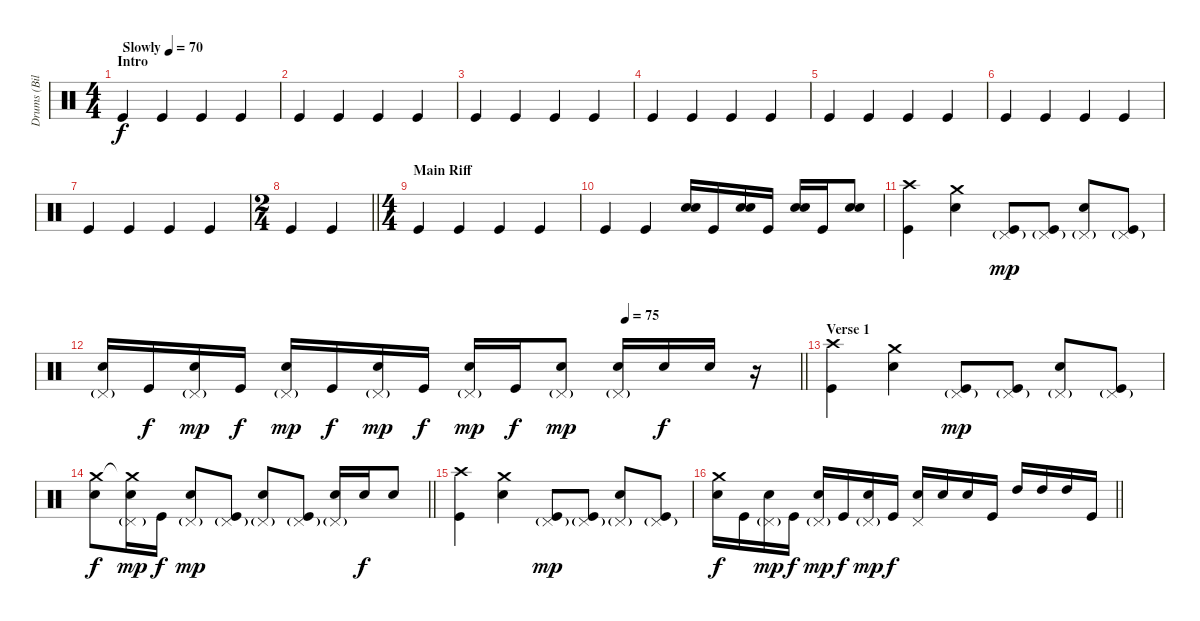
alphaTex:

\track ("Drums (Bill Ward)" "Drums (Bil") {instrument percussion}
\staff {score}
\articulation defaults
\ts (4 4)
\section ("" "Intro")
\tempo (70 "Slowly")
\clef neutral
\ks c "Kick (hit)".4{dy f} "Kick (hit)".4 "Kick (hit)".4 "Kick (hit)".4
|
"Kick (hit)".4{balance 15} "Kick (hit)".4{balance 13} "Kick (hit)".4{balance 11} "Kick (hit)".4{balance 9} |
"Kick (hit)".4{balance 8} "Kick (hit)".4 "Kick (hit)".4 "Kick (hit)".4 |
"Kick (hit)".4 "Kick (hit)".4 "Kick (hit)".4 "Kick (hit)".4 |
"Kick (hit)".4 "Kick (hit)".4 "Kick (hit)".4 "Kick (hit)".4 |
"Kick (hit)".4 "Kick (hit)".4 "Kick (hit)".4 "Kick (hit)".4 |
"Kick (hit)".4 "Kick (hit)".4 "Kick (hit)".4 "Kick (hit)".4 |
\ts (2 4)
\barLineRight lightlight "Kick (hit)".4 "Kick (hit)".4
|
\ts (4 4)
\section ("" "Main Riff")
"Kick (hit)".4 "Kick (hit)".4 "Kick (hit)".4 "Kick (hit)".4 |
"Kick (hit)".4 "Kick (hit)".4 ("Electric Snare (hit)" "Electric Snare (hit)").16 "Kick (hit)".16 ("Electric Snare (hit)" "Electric Snare (hit)").16 "Kick (hit)".16 ("Electric Snare (hit)" "Electric Snare (hit)").16 "Kick (hit)".16 ("Electric Snare (hit)" "Electric Snare (hit)").8 |
("Crash high (hit)" "Kick (hit)").4 ("Crash medium (hit)" "Electric Snare (hit)").4 ("Pedal Hi-Hat (hit)"{g} "Kick (hit)").8{dy mp} ("Pedal Hi-Hat (hit)"{g} "Kick (hit)").8 ("Pedal Hi-Hat (hit)"{g} "Electric Snare (hit)").8 ("Pedal Hi-Hat (hit)"{g} "Kick (hit)").8 |
\tempo (75 0.75)
\barLineRight lightlight
("Pedal Hi-Hat (hit)"{g} "Electric Snare (hit)").16 "Kick (hit)".16{dy f} ("Pedal Hi-Hat (hit)"{g} "Electric Snare (hit)").16{dy mp} "Kick (hit)".16{dy f} ("Pedal Hi-Hat (hit)"{g} "Electric Snare (hit)").16{dy mp} "Kick (hit)".16{dy f} ("Pedal Hi-Hat (hit)"{g} "Electric Snare (hit)").16{dy mp} "Kick (hit)".16{dy f} ("Pedal Hi-Hat (hit)"{g} "Electric Snare (hit)").16{dy mp} "Kick (hit)".16{dy f} ("Pedal Hi-Hat (hit)"{g} "Electric Snare (hit)").8{dy mp} ("Pedal Hi-Hat (hit)"{g} "Electric Snare (hit)").16 "Electric Snare (hit)".16{dy f} "Electric Snare (hit)".16 r.16 |
\section ("" "Verse 1")
("Crash high (hit)" "Kick (hit)").4 ("Crash medium (hit)" "Electric Snare (hit)").4 ("Pedal Hi-Hat (hit)"{g} "Kick (hit)").8{dy mp} ("Pedal Hi-Hat (hit)"{g} "Kick (hit)").8 ("Pedal Hi-Hat (hit)"{g} "Electric Snare (hit)").8 ("Pedal Hi-Hat (hit)"{g} "Kick (hit)").8 |
\barLineRight lightlight
("Crash medium (hit)" "Electric Snare (hit)").8{dy f} ("Crash medium (hit)"{t} "Pedal Hi-Hat (hit)"{g} "Electric Snare (hit)").16{dy mp} "Kick (hit)".16{dy f} ("Pedal Hi-Hat (hit)"{g} "Electric Snare (hit)").8{dy mp} ("Pedal Hi-Hat (hit)"{g} "Kick (hit)").8 ("Pedal Hi-Hat (hit)"{g} "Electric Snare (hit)").8 ("Pedal Hi-Hat (hit)"{g} "Kick (hit)").8 ("Pedal Hi-Hat (hit)"{g} "Electric Snare (hit)").16 "Electric Snare (hit)".16{dy f} "Electric Snare (hit)".8 |
("Crash high (hit)" "Kick (hit)").4 ("Crash medium (hit)" "Electric Snare (hit)").4 ("Pedal Hi-Hat (hit)"{g} "Kick (hit)").8{dy mp} ("Pedal Hi-Hat (hit)"{g} "Kick (hit)").8 ("Pedal Hi-Hat (hit)"{g} "Electric Snare (hit)").8 ("Pedal Hi-Hat (hit)"{g} "Kick (hit)").8 |
\barLineRight lightlight
("Crash medium (hit)" "Electric Snare (hit)").16{dy f} "Kick (hit)".16 ("Pedal Hi-Hat (hit)"{g} "Electric Snare (hit)").16{dy mp} "Kick (hit)".16{dy f} ("Pedal Hi-Hat (hit)"{g} "Electric Snare (hit)").16{dy mp} "Kick (hit)".16{dy f} ("Pedal Hi-Hat (hit)"{g} "Electric Snare (hit)").16{dy mp} "Kick (hit)".16{dy f} ("Pedal Hi-Hat (hit)" "Electric Snare (hit)").16 "Electric Snare (hit)".16 "Electric Snare (hit)".16 "Kick (hit)".16 "High Tom (hit)".16 "High Tom (hit)".16 "High Tom (hit)".16 "Kick (hit)".16
